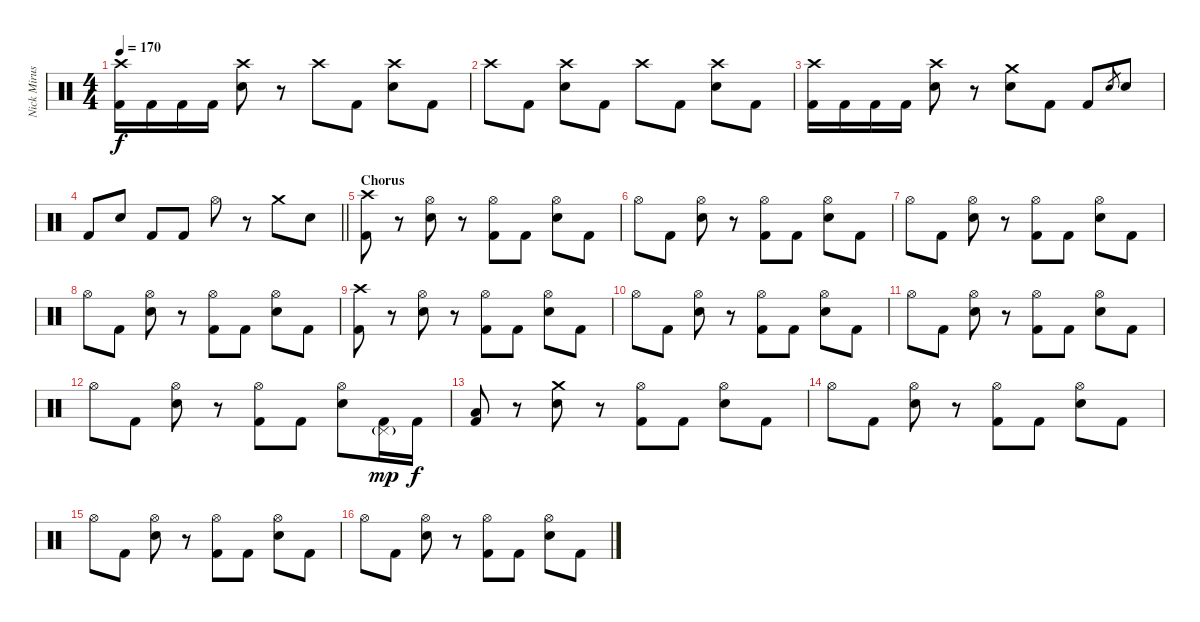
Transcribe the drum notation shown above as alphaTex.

\track ("Nick Mirusso - Drums" "Nick Mirus") {instrument percussion}
\staff {score}
\articulation defaults
\ts (4 4)
\tempo 170
\clef neutral
\ks c
("Crash high (hit)" "Kick (hit) 2").16{dy f} "Kick (hit) 2".16 "Kick (hit) 2".16 "Kick (hit) 2".16 ("Crash high (hit)" "Electric Snare (hit)").8 r.8 "Crash high (hit)".8 "Kick (hit) 2".8 ("Crash high (hit)" "Electric Snare (hit)").8 "Kick (hit) 2".8 |
"Crash high (hit)".8 "Kick (hit) 2".8 ("Crash high (hit)" "Electric Snare (hit)").8 "Kick (hit) 2".8 "Crash high (hit)".8 "Kick (hit) 2".8 ("Crash high (hit)" "Electric Snare (hit)").8 "Kick (hit) 2".8 |
("Crash high (hit)" "Kick (hit) 2").16 "Kick (hit) 2".16 "Kick (hit) 2".16 "Kick (hit) 2".16 ("Crash high (hit)" "Electric Snare (hit)").8 r.8 ("Crash medium (hit)" "Electric Snare (hit)").8 "Kick (hit) 2".8 "Kick (hit) 2".8 "Electric Snare (hit)".8{gr} "Electric Snare (hit)".8 |
\barLineRight lightlight "Kick (hit) 2".8 "Electric Snare (hit)".8 "Kick (hit) 2".8 "Kick (hit) 2".8 "Hi-Hat (open)".8
r.8 "Crash medium (hit)".8 "Electric Snare (hit)".8 |
\section ("" "Chorus")
("Crash high (hit)" "Kick (hit) 2").8 r.8 ("Hi-Hat (open)" "Electric Snare (hit)").8 r.8 ("Hi-Hat (open)" "Kick (hit) 2").8 "Kick (hit) 2".8 ("Hi-Hat (open)" "Electric Snare (hit)").8 "Kick (hit) 2".8 |
"Hi-Hat (open)".8 "Kick (hit) 2".8 ("Hi-Hat (open)" "Electric Snare (hit)").8 r.8 ("Hi-Hat (open)" "Kick (hit) 2").8 "Kick (hit) 2".8 ("Hi-Hat (open)" "Electric Snare (hit)").8 "Kick (hit) 2".8 |
"Hi-Hat (open)".8 "Kick (hit) 2".8 ("Hi-Hat (open)" "Electric Snare (hit)").8 r.8 ("Hi-Hat (open)" "Kick (hit) 2").8 "Kick (hit) 2".8 ("Hi-Hat (open)" "Electric Snare (hit)").8 "Kick (hit) 2".8 |
"Hi-Hat (open)".8 "Kick (hit) 2".8 ("Hi-Hat (open)" "Electric Snare (hit)").8 r.8 ("Hi-Hat (open)" "Kick (hit) 2").8 "Kick (hit) 2".8 ("Hi-Hat (open)" "Electric Snare (hit)").8 "Kick (hit) 2".8 |
("Crash high (hit)" "Kick (hit) 2").8 r.8 ("Hi-Hat (open)" "Electric Snare (hit)").8 r.8 ("Hi-Hat (open)" "Kick (hit) 2").8 "Kick (hit) 2".8 ("Hi-Hat (open)" "Electric Snare (hit)").8 "Kick (hit) 2".8 |
"Hi-Hat (open)".8 "Kick (hit) 2".8 ("Hi-Hat (open)" "Electric Snare (hit)").8 r.8 ("Hi-Hat (open)" "Kick (hit) 2").8 "Kick (hit) 2".8 ("Hi-Hat (open)" "Electric Snare (hit)").8 "Kick (hit) 2".8 |
"Hi-Hat (open)".8 "Kick (hit) 2".8 ("Hi-Hat (open)" "Electric Snare (hit)").8 r.8 ("Hi-Hat (open)" "Kick (hit) 2").8 "Kick (hit) 2".8 ("Hi-Hat (open)" "Electric Snare (hit)").8 "Kick (hit) 2".8 |
"Hi-Hat (open)".8 "Kick (hit) 2".8 ("Hi-Hat (open)" "Electric Snare (hit)").8 r.8 ("Hi-Hat (open)" "Kick (hit) 2").8 "Kick (hit) 2".8 ("Hi-Hat (open)" "Electric Snare (hit)").8 ("Pedal Hi-Hat (hit)"{g} "Kick (hit) 2").16{dy mp} "Kick (hit) 2".16{dy f} |
("Low Floor Tom (hit)" "Kick (hit) 2").8 r.8 ("Crash medium (hit)" "Electric Snare (hit)").8 r.8 ("Hi-Hat (open)" "Kick (hit) 2").8 "Kick (hit) 2".8 ("Hi-Hat (open)" "Electric Snare (hit)").8 "Kick (hit) 2".8 |
"Hi-Hat (open)".8 "Kick (hit) 2".8 ("Hi-Hat (open)" "Electric Snare (hit)").8 r.8 ("Hi-Hat (open)" "Kick (hit) 2").8 "Kick (hit) 2".8 ("Hi-Hat (open)" "Electric Snare (hit)").8 "Kick (hit) 2".8 |
"Hi-Hat (open)".8 "Kick (hit) 2".8 ("Hi-Hat (open)" "Electric Snare (hit)").8 r.8 ("Hi-Hat (open)" "Kick (hit) 2").8 "Kick (hit) 2".8 ("Hi-Hat (open)" "Electric Snare (hit)").8 "Kick (hit) 2".8 |
"Hi-Hat (open)".8 "Kick (hit) 2".8 ("Hi-Hat (open)" "Electric Snare (hit)").8 r.8 ("Hi-Hat (open)" "Kick (hit) 2").8 "Kick (hit) 2".8 ("Hi-Hat (open)" "Electric Snare (hit)").8 "Kick (hit) 2".8
